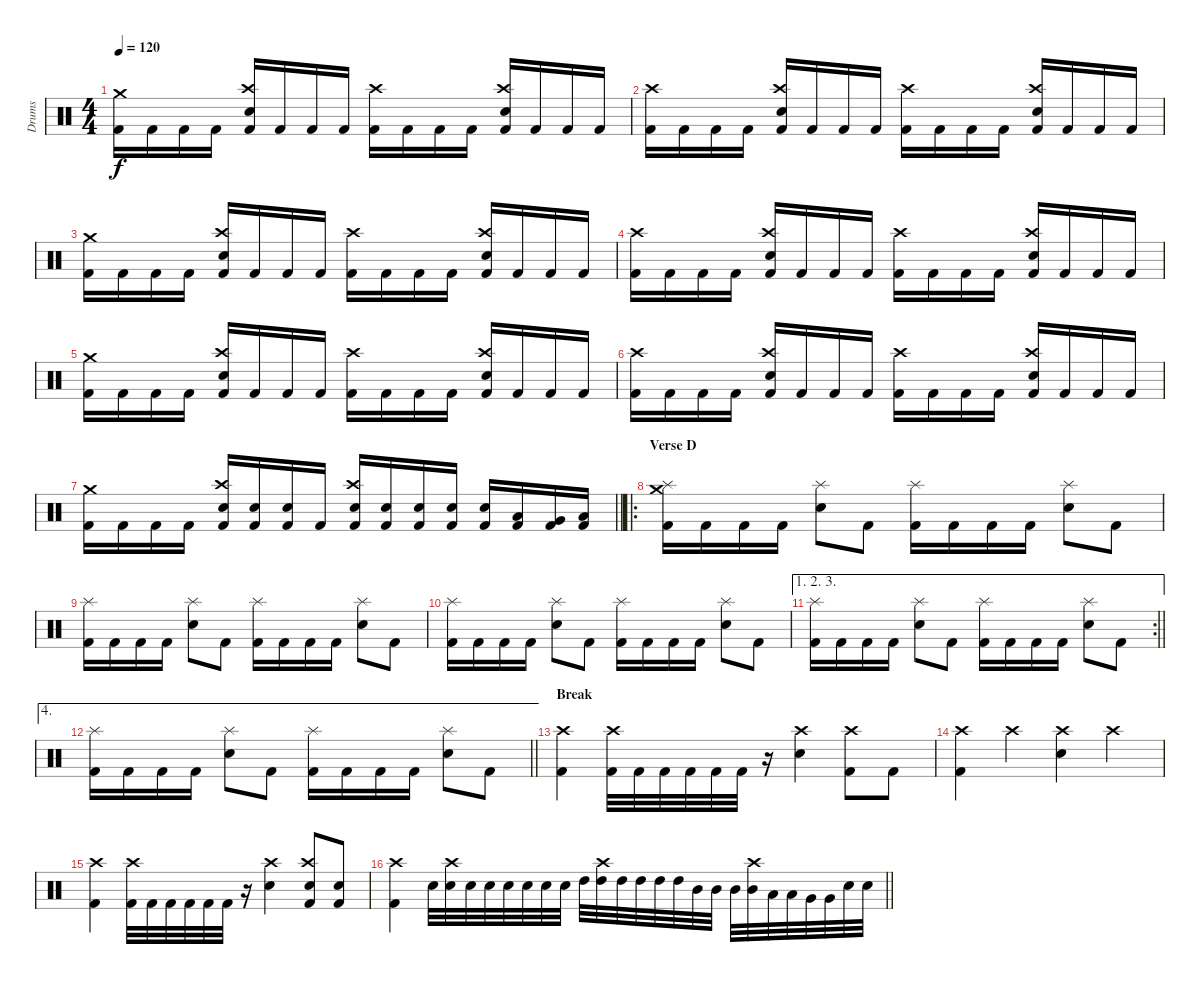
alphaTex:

\track ("Drums" "Drums") {instrument percussion}
\staff {score}
\articulation defaults
\ts (4 4)
\tempo 120
\clef neutral
\ks c
("Crash medium (hit)" "Kick (hit) 2").16{dy f} "Kick (hit) 2".16 "Kick (hit) 2".16 "Kick (hit) 2".16 ("Crash high (hit)" "Snare (hit) 2" "Kick (hit) 2").16 "Kick (hit) 2".16 "Kick (hit) 2".16 "Kick (hit) 2".16 ("Crash high (hit)" "Kick (hit) 2").16 "Kick (hit) 2".16 "Kick (hit) 2".16 "Kick (hit) 2".16 ("Crash high (hit)" "Snare (hit) 2" "Kick (hit) 2").16 "Kick (hit) 2".16 "Kick (hit) 2".16 "Kick (hit) 2".16 |
("Crash high (hit)" "Kick (hit) 2").16 "Kick (hit) 2".16 "Kick (hit) 2".16 "Kick (hit) 2".16 ("Crash high (hit)" "Snare (hit) 2" "Kick (hit) 2").16 "Kick (hit) 2".16 "Kick (hit) 2".16 "Kick (hit) 2".16 ("Crash high (hit)" "Kick (hit) 2").16 "Kick (hit) 2".16 "Kick (hit) 2".16 "Kick (hit) 2".16 ("Crash high (hit)" "Snare (hit) 2" "Kick (hit) 2").16 "Kick (hit) 2".16 "Kick (hit) 2".16 "Kick (hit) 2".16 |
("Crash medium (hit)" "Kick (hit) 2").16 "Kick (hit) 2".16 "Kick (hit) 2".16 "Kick (hit) 2".16 ("Crash high (hit)" "Snare (hit) 2" "Kick (hit) 2").16 "Kick (hit) 2".16 "Kick (hit) 2".16 "Kick (hit) 2".16 ("Crash high (hit)" "Kick (hit) 2").16 "Kick (hit) 2".16 "Kick (hit) 2".16 "Kick (hit) 2".16 ("Crash high (hit)" "Snare (hit) 2" "Kick (hit) 2").16 "Kick (hit) 2".16 "Kick (hit) 2".16 "Kick (hit) 2".16 |
("Crash high (hit)" "Kick (hit) 2").16 "Kick (hit) 2".16 "Kick (hit) 2".16 "Kick (hit) 2".16 ("Crash high (hit)" "Snare (hit) 2" "Kick (hit) 2").16 "Kick (hit) 2".16 "Kick (hit) 2".16 "Kick (hit) 2".16 ("Crash high (hit)" "Kick (hit) 2").16 "Kick (hit) 2".16 "Kick (hit) 2".16 "Kick (hit) 2".16 ("Crash high (hit)" "Snare (hit) 2" "Kick (hit) 2").16 "Kick (hit) 2".16 "Kick (hit) 2".16 "Kick (hit) 2".16 |
("Crash medium (hit)" "Kick (hit) 2").16 "Kick (hit) 2".16 "Kick (hit) 2".16 "Kick (hit) 2".16 ("Crash high (hit)" "Snare (hit) 2" "Kick (hit) 2").16 "Kick (hit) 2".16 "Kick (hit) 2".16 "Kick (hit) 2".16 ("Crash high (hit)" "Kick (hit) 2").16 "Kick (hit) 2".16 "Kick (hit) 2".16 "Kick (hit) 2".16 ("Crash high (hit)" "Snare (hit) 2" "Kick (hit) 2").16 "Kick (hit) 2".16 "Kick (hit) 2".16 "Kick (hit) 2".16 |
("Crash high (hit)" "Kick (hit) 2").16 "Kick (hit) 2".16 "Kick (hit) 2".16 "Kick (hit) 2".16 ("Crash high (hit)" "Snare (hit) 2" "Kick (hit) 2").16 "Kick (hit) 2".16 "Kick (hit) 2".16 "Kick (hit) 2".16 ("Crash high (hit)" "Kick (hit) 2").16 "Kick (hit) 2".16 "Kick (hit) 2".16 "Kick (hit) 2".16 ("Crash high (hit)" "Snare (hit) 2" "Kick (hit) 2").16 "Kick (hit) 2".16 "Kick (hit) 2".16 "Kick (hit) 2".16 |
\barLineRight lightlight
("Crash medium (hit)" "Kick (hit) 2").16 "Kick (hit) 2".16 "Kick (hit) 2".16 "Kick (hit) 2".16 ("Crash high (hit)" "Snare (hit) 2" "Kick (hit) 2").16 ("Snare (hit) 2" "Kick (hit) 2").16 ("Snare (hit) 2" "Kick (hit) 2").16 "Kick (hit) 2".16 ("Crash high (hit)" "Snare (hit) 2" "Kick (hit) 2").16 ("Snare (hit) 2" "Kick (hit) 2").16 ("Snare (hit) 2" "Kick (hit) 2").16 ("Snare (hit) 2" "Kick (hit) 2").16 ("Snare (hit) 2" "Kick (hit) 2").16 ("Low Tom (hit)" "Kick (hit) 2").16 ("Very Low Tom (hit)" "Kick (hit) 2").16 ("Low Floor Tom (hit)" "Kick (hit) 2").16 |
\ro
\section ("" "Verse D")
("Kick (hit) 2" "Splash (hit)" "Crash medium (hit)").16 "Kick (hit) 2".16 "Kick (hit) 2".16 "Kick (hit) 2".16 ("Snare (hit) 2" "Splash (hit)").8 "Kick (hit) 2".8 ("Kick (hit) 2" "Splash (hit)").16 "Kick (hit) 2".16 "Kick (hit) 2".16 "Kick (hit) 2".16 ("Snare (hit) 2" "Splash (hit)").8 "Kick (hit) 2".8 |
("Kick (hit) 2" "Splash (hit)").16 "Kick (hit) 2".16 "Kick (hit) 2".16 "Kick (hit) 2".16 ("Snare (hit) 2" "Splash (hit)").8 "Kick (hit) 2".8 ("Kick (hit) 2" "Splash (hit)").16 "Kick (hit) 2".16 "Kick (hit) 2".16 "Kick (hit) 2".16 ("Snare (hit) 2" "Splash (hit)").8 "Kick (hit) 2".8 |
("Kick (hit) 2" "Splash (hit)").16 "Kick (hit) 2".16 "Kick (hit) 2".16 "Kick (hit) 2".16 ("Snare (hit) 2" "Splash (hit)").8 "Kick (hit) 2".8 ("Kick (hit) 2" "Splash (hit)").16 "Kick (hit) 2".16 "Kick (hit) 2".16 "Kick (hit) 2".16 ("Snare (hit) 2" "Splash (hit)").8 "Kick (hit) 2".8 |
\ae (1 2 3)
\rc 2
\barLineRight lightlight
("Kick (hit) 2" "Splash (hit)").16 "Kick (hit) 2".16 "Kick (hit) 2".16 "Kick (hit) 2".16 ("Snare (hit) 2" "Splash (hit)").8 "Kick (hit) 2".8 ("Kick (hit) 2" "Splash (hit)").16 "Kick (hit) 2".16 "Kick (hit) 2".16 "Kick (hit) 2".16 ("Snare (hit) 2" "Splash (hit)").8 "Kick (hit) 2".8 |
\ae 4
\barLineRight lightlight
("Kick (hit) 2" "Splash (hit)").16 "Kick (hit) 2".16 "Kick (hit) 2".16 "Kick (hit) 2".16 ("Snare (hit) 2" "Splash (hit)").8 "Kick (hit) 2".8 ("Kick (hit) 2" "Splash (hit)").16 "Kick (hit) 2".16 "Kick (hit) 2".16 "Kick (hit) 2".16 ("Snare (hit) 2" "Splash (hit)").8 "Kick (hit) 2".8 |
\section ("" "Break")
("Kick (hit) 2" "Crash high (hit)").4 ("Kick (hit) 2" "Crash high (hit)").32 "Kick (hit) 2".32 "Kick (hit) 2".32 "Kick (hit) 2".32 "Kick (hit) 2".32 "Kick (hit) 2".32 r.16 ("Snare (hit) 2" "Crash high (hit)").4 ("Kick (hit) 2" "Crash high (hit)").8 "Kick (hit) 2".8 |
("Kick (hit) 2" "Crash high (hit)").4 "Crash high (hit)".4 ("Snare (hit) 2" "Crash high (hit)").4 "Crash high (hit)".4 |
("Kick (hit) 2" "Crash high (hit)").4 ("Kick (hit) 2" "Crash high (hit)").32 "Kick (hit) 2".32 "Kick (hit) 2".32 "Kick (hit) 2".32 "Kick (hit) 2".32 "Kick (hit) 2".32 r.16 ("Snare (hit) 2" "Crash high (hit)").4 ("Kick (hit) 2" "Snare (hit) 2" "Crash high (hit)").8 ("Kick (hit) 2" "Snare (hit) 2").8 |
\barLineRight lightlight
("Kick (hit) 2" "Crash high (hit)").4 "Snare (hit) 2".32 ("Snare (hit) 2" "Crash high (hit)").32 "Snare (hit) 2".32 "Snare (hit) 2".32 "Snare (hit) 2".32 "Snare (hit) 2".32 "Snare (hit) 2".32 "Snare (hit) 2".32 "High Tom (hit)".32 ("High Tom (hit)" "Crash high (hit)").32 "High Tom (hit)".32 "High Tom (hit)".32 "High Tom (hit)".32 "High Tom (hit)".32 "Mid Tom (hit)".32 "Mid Tom (hit)".32 "Mid Tom (hit)".32 ("Mid Tom (hit)" "Crash high (hit)").32 "Low Tom (hit)".32 "Low Tom (hit)".32 "Very Low Tom (hit)".32 "Very Low Tom (hit)".32 "Snare (hit) 2".32 "Snare (hit) 2".32
